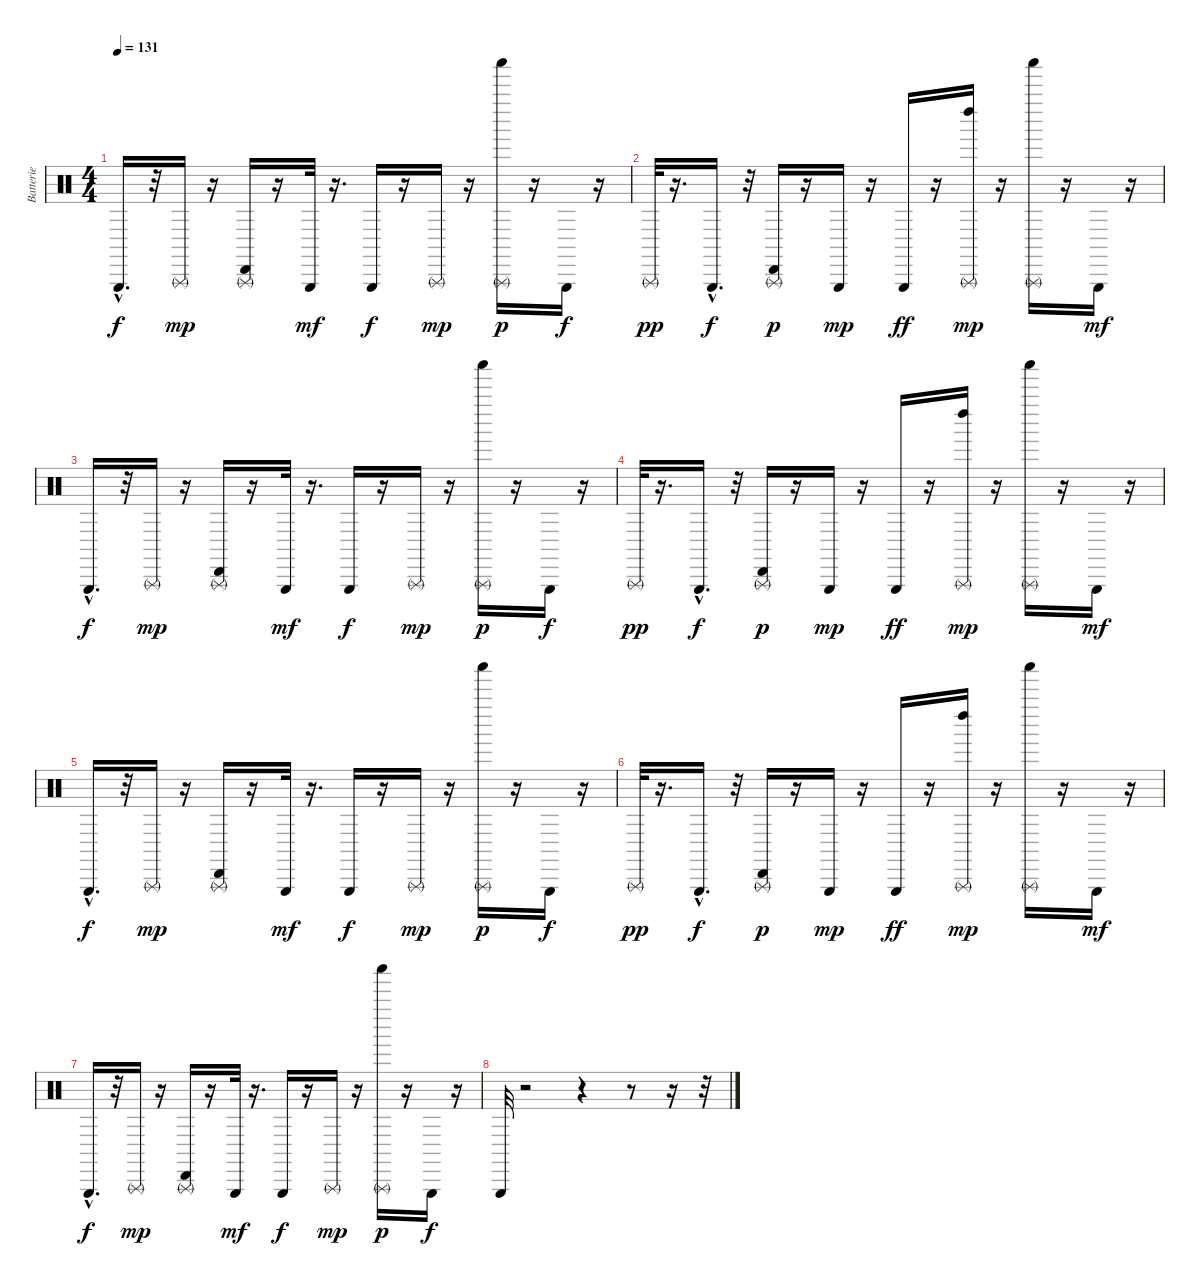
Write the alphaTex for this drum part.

\track ("Batterie" "Batterie") {instrument percussion}
\staff {score}
\articulation defaults
\ts (4 4)
\tempo 131
\clef neutral
\ks c "Triangle (hit)"{hac}.16{d dy f}
r.32 "Triangle (rnute)".16{dy mp} r.16 ("Cabasa (hit)" "Triangle (rnute)").16 r.16 "Triangle (hit)".32{dy mf} r.16{d} "Triangle (hit)".16{dy f} r.16 "Triangle (rnute)".16{dy mp} r.16 ("Shaker (hit)" "Triangle (rnute)").16{dy p} r.16 "Triangle (hit)".16{dy f} r.16 |
"Triangle (rnute)".32{dy pp} r.16{d} "Triangle (hit)"{hac}.16{d dy f} r.32 ("Cabasa (hit)" "Triangle (rnute)").16{dy p} r.16 "Triangle (hit)".16{dy mp} r.16 "Triangle (hit)".16{dy ff} r.16 ("Left Maraca (hit)" "Triangle (rnute)").16{dy mp} r.16 ("Shaker (hit)" "Triangle (rnute)").16 r.16 "Triangle (hit)".16{dy mf} r.16 |
"Triangle (hit)"{hac}.16{d dy f} r.32 "Triangle (rnute)".16{dy mp} r.16 ("Cabasa (hit)" "Triangle (rnute)").16 r.16 "Triangle (hit)".32{dy mf} r.16{d} "Triangle (hit)".16{dy f} r.16 "Triangle (rnute)".16{dy mp} r.16 ("Shaker (hit)" "Triangle (rnute)").16{dy p} r.16 "Triangle (hit)".16{dy f} r.16 |
"Triangle (rnute)".32{dy pp} r.16{d} "Triangle (hit)"{hac}.16{d dy f} r.32 ("Cabasa (hit)" "Triangle (rnute)").16{dy p} r.16 "Triangle (hit)".16{dy mp} r.16 "Triangle (hit)".16{dy ff} r.16 ("Left Maraca (hit)" "Triangle (rnute)").16{dy mp} r.16 ("Shaker (hit)" "Triangle (rnute)").16 r.16 "Triangle (hit)".16{dy mf} r.16 |
"Triangle (hit)"{hac}.16{d dy f} r.32 "Triangle (rnute)".16{dy mp} r.16 ("Cabasa (hit)" "Triangle (rnute)").16 r.16 "Triangle (hit)".32{dy mf} r.16{d} "Triangle (hit)".16{dy f} r.16 "Triangle (rnute)".16{dy mp} r.16 ("Shaker (hit)" "Triangle (rnute)").16{dy p} r.16 "Triangle (hit)".16{dy f} r.16 |
"Triangle (rnute)".32{dy pp} r.16{d} "Triangle (hit)"{hac}.16{d dy f} r.32 ("Cabasa (hit)" "Triangle (rnute)").16{dy p} r.16 "Triangle (hit)".16{dy mp} r.16 "Triangle (hit)".16{dy ff} r.16 ("Left Maraca (hit)" "Triangle (rnute)").16{dy mp} r.16 ("Shaker (hit)" "Triangle (rnute)").16 r.16 "Triangle (hit)".16{dy mf} r.16 |
"Triangle (hit)"{hac}.16{d dy f} r.32 "Triangle (rnute)".16{dy mp} r.16 ("Cabasa (hit)" "Triangle (rnute)").16 r.16 "Triangle (hit)".32{dy mf} r.16{d} "Triangle (hit)".16{dy f} r.16 "Triangle (rnute)".16{dy mp} r.16 ("Shaker (hit)" "Triangle (rnute)").16{dy p} r.16 "Triangle (hit)".16{dy f} r.16 |
"Triangle (hit)".32 r.2 r.4 r.8 r.16 r.32
